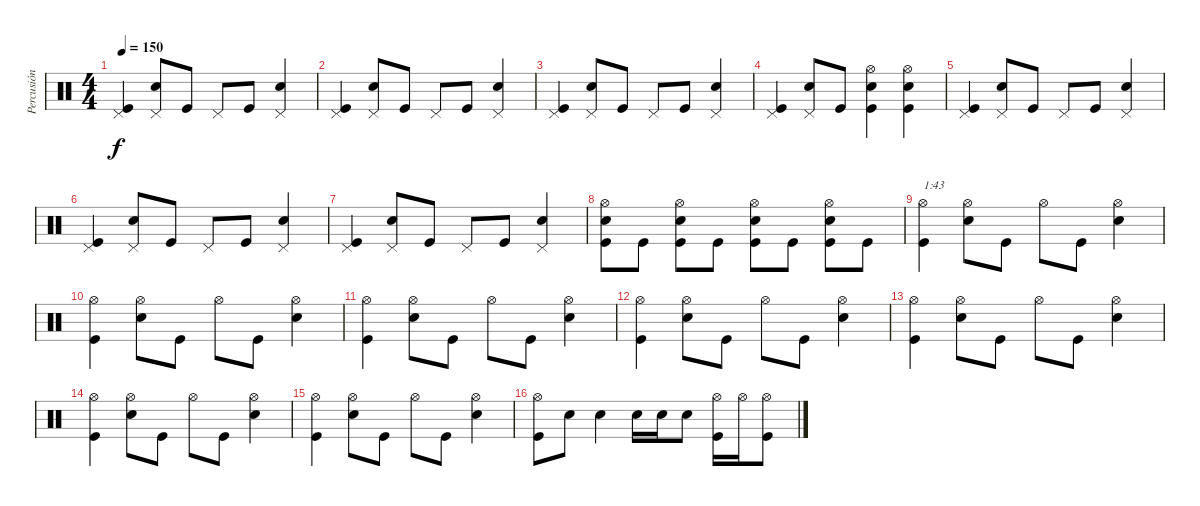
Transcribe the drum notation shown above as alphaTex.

\track ("Percusión" "Percusión") {instrument percussion}
\staff {score}
\articulation defaults
\ts (4 4)
\tempo 150
\clef neutral
\ks c
("Kick (hit)" "Pedal Hi-Hat (hit)").4{dy f} ("Snare (hit) 2" "Pedal Hi-Hat (hit)").8 "Kick (hit)".8 "Pedal Hi-Hat (hit)".8 "Kick (hit)".8 ("Snare (hit) 2" "Pedal Hi-Hat (hit)").4 |
("Kick (hit)" "Pedal Hi-Hat (hit)").4 ("Snare (hit) 2" "Pedal Hi-Hat (hit)").8 "Kick (hit)".8 "Pedal Hi-Hat (hit)".8 "Kick (hit)".8 ("Snare (hit) 2" "Pedal Hi-Hat (hit)").4 |
("Kick (hit)" "Pedal Hi-Hat (hit)").4 ("Snare (hit) 2" "Pedal Hi-Hat (hit)").8 "Kick (hit)".8 "Pedal Hi-Hat (hit)".8 "Kick (hit)".8 ("Snare (hit) 2" "Pedal Hi-Hat (hit)").4 |
("Kick (hit)" "Pedal Hi-Hat (hit)").4 ("Snare (hit) 2" "Pedal Hi-Hat (hit)").8 "Kick (hit)".8 ("Kick (hit)" "Snare (hit) 2" "Hi-Hat (open)").4 ("Kick (hit)" "Snare (hit) 2" "Hi-Hat (open)").4 |
("Kick (hit)" "Pedal Hi-Hat (hit)").4 ("Snare (hit) 2" "Pedal Hi-Hat (hit)").8 "Kick (hit)".8 "Pedal Hi-Hat (hit)".8 "Kick (hit)".8 ("Snare (hit) 2" "Pedal Hi-Hat (hit)").4 |
("Kick (hit)" "Pedal Hi-Hat (hit)").4 ("Snare (hit) 2" "Pedal Hi-Hat (hit)").8 "Kick (hit)".8 "Pedal Hi-Hat (hit)".8 "Kick (hit)".8 ("Snare (hit) 2" "Pedal Hi-Hat (hit)").4 |
("Kick (hit)" "Pedal Hi-Hat (hit)").4 ("Snare (hit) 2" "Pedal Hi-Hat (hit)").8 "Kick (hit)".8 "Pedal Hi-Hat (hit)".8 "Kick (hit)".8 ("Snare (hit) 2" "Pedal Hi-Hat (hit)").4 |
("Kick (hit)" "Snare (hit) 2" "Hi-Hat (open)").8 "Kick (hit)".8 ("Kick (hit)" "Snare (hit) 2" "Hi-Hat (open)").8 "Kick (hit)".8 ("Kick (hit)" "Snare (hit) 2" "Hi-Hat (open)").8 "Kick (hit)".8 ("Kick (hit)" "Snare (hit) 2" "Hi-Hat (open)").8 "Kick (hit)".8 |
("Kick (hit)" "Hi-Hat (open)").4{txt "1:43"} ("Snare (hit) 2" "Hi-Hat (open)").8 "Kick (hit)".8 "Hi-Hat (open)".8 "Kick (hit)".8 ("Snare (hit) 2" "Hi-Hat (open)").4 |
("Kick (hit)" "Hi-Hat (open)").4 ("Snare (hit) 2" "Hi-Hat (open)").8 "Kick (hit)".8 "Hi-Hat (open)".8 "Kick (hit)".8 ("Snare (hit) 2" "Hi-Hat (open)").4 |
("Kick (hit)" "Hi-Hat (open)").4 ("Snare (hit) 2" "Hi-Hat (open)").8 "Kick (hit)".8 "Hi-Hat (open)".8 "Kick (hit)".8 ("Snare (hit) 2" "Hi-Hat (open)").4 |
("Kick (hit)" "Hi-Hat (open)").4 ("Snare (hit) 2" "Hi-Hat (open)").8 "Kick (hit)".8 "Hi-Hat (open)".8 "Kick (hit)".8 ("Snare (hit) 2" "Hi-Hat (open)").4 |
("Kick (hit)" "Hi-Hat (open)").4 ("Snare (hit) 2" "Hi-Hat (open)").8 "Kick (hit)".8 "Hi-Hat (open)".8 "Kick (hit)".8 ("Snare (hit) 2" "Hi-Hat (open)").4 |
("Kick (hit)" "Hi-Hat (open)").4 ("Snare (hit) 2" "Hi-Hat (open)").8 "Kick (hit)".8 "Hi-Hat (open)".8 "Kick (hit)".8 ("Snare (hit) 2" "Hi-Hat (open)").4 |
("Kick (hit)" "Hi-Hat (open)").4 ("Snare (hit) 2" "Hi-Hat (open)").8 "Kick (hit)".8 "Hi-Hat (open)".8 "Kick (hit)".8 ("Snare (hit) 2" "Hi-Hat (open)").4 |
("Kick (hit)" "Hi-Hat (open)").8 "Snare (hit) 2".8 "Snare (hit) 2".4 "Snare (hit) 2".16 "Snare (hit) 2".16 "Snare (hit) 2".8 ("Kick (hit)" "Hi-Hat (open)").16 "Hi-Hat (open)".16 ("Kick (hit)" "Hi-Hat (open)").8
